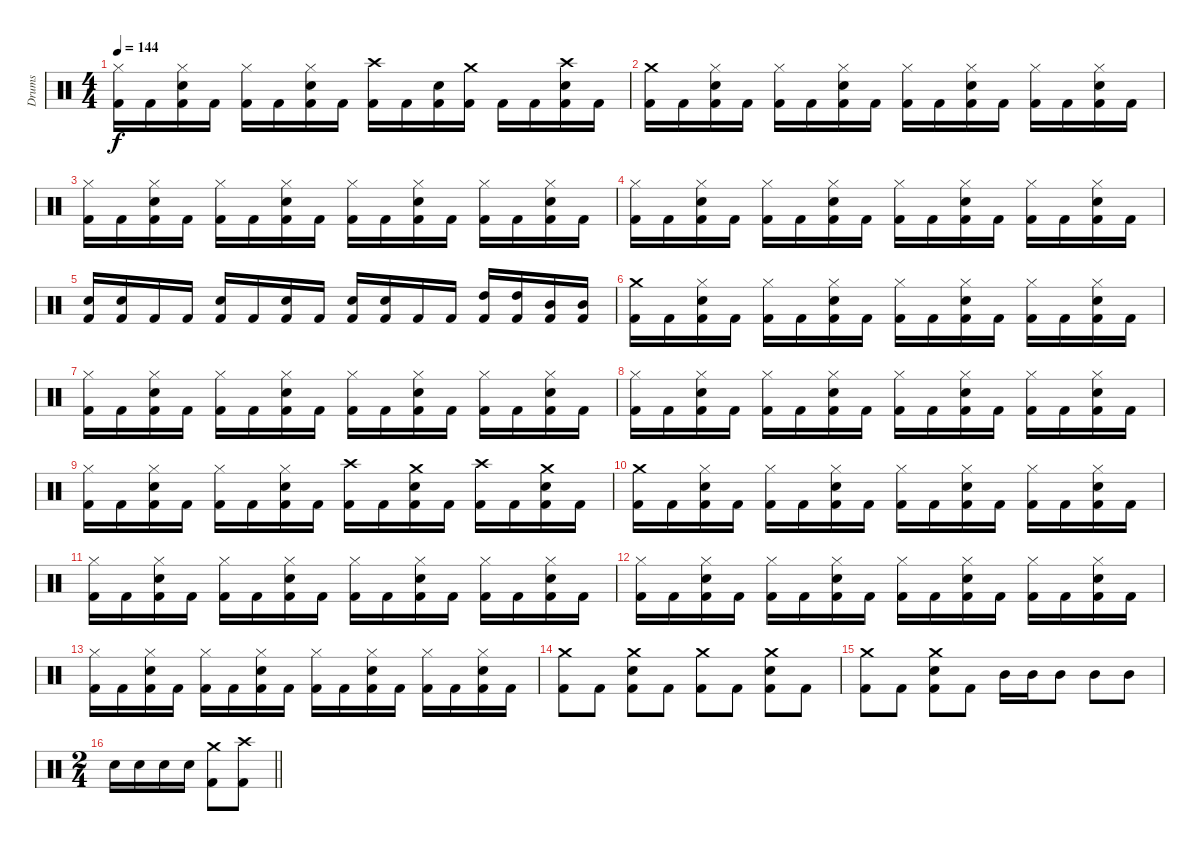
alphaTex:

\track ("Drums" "Drums") {instrument percussion}
\staff {score}
\articulation defaults
\ts (4 4)
\tempo 144
\clef neutral
\ks c
("Kick (hit) 2" "Hi-Hat (closed)").16{dy f} "Kick (hit) 2".16 ("Kick (hit) 2" "Snare (hit) 2" "Hi-Hat (closed)").16 "Kick (hit) 2".16 ("Kick (hit) 2" "Hi-Hat (closed)").16 "Kick (hit) 2".16 ("Kick (hit) 2" "Snare (hit) 2" "Hi-Hat (closed)").16 "Kick (hit) 2".16 ("Kick (hit) 2" "Crash high (hit)").16 "Kick (hit) 2".16 ("Kick (hit) 2" "Snare (hit) 2").16 ("Kick (hit) 2" "Crash medium (hit)").16 "Kick (hit) 2".16 "Kick (hit) 2".16 ("Kick (hit) 2" "Snare (hit) 2" "Crash high (hit)").16 "Kick (hit) 2".16 |
("Kick (hit) 2" "Crash medium (hit)").16 "Kick (hit) 2".16 ("Kick (hit) 2" "Snare (hit) 2" "Hi-Hat (closed)").16 "Kick (hit) 2".16 ("Kick (hit) 2" "Hi-Hat (closed)").16 "Kick (hit) 2".16 ("Kick (hit) 2" "Snare (hit) 2" "Hi-Hat (closed)").16 "Kick (hit) 2".16 ("Kick (hit) 2" "Hi-Hat (closed)").16 "Kick (hit) 2".16 ("Kick (hit) 2" "Snare (hit) 2" "Hi-Hat (closed)").16 "Kick (hit) 2".16 ("Kick (hit) 2" "Hi-Hat (closed)").16 "Kick (hit) 2".16 ("Kick (hit) 2" "Snare (hit) 2" "Hi-Hat (closed)").16 "Kick (hit) 2".16 |
("Kick (hit) 2" "Hi-Hat (closed)").16 "Kick (hit) 2".16 ("Kick (hit) 2" "Snare (hit) 2" "Hi-Hat (closed)").16 "Kick (hit) 2".16 ("Kick (hit) 2" "Hi-Hat (closed)").16 "Kick (hit) 2".16 ("Kick (hit) 2" "Snare (hit) 2" "Hi-Hat (closed)").16 "Kick (hit) 2".16 ("Kick (hit) 2" "Hi-Hat (closed)").16 "Kick (hit) 2".16 ("Kick (hit) 2" "Snare (hit) 2" "Hi-Hat (closed)").16 "Kick (hit) 2".16 ("Kick (hit) 2" "Hi-Hat (closed)").16 "Kick (hit) 2".16 ("Kick (hit) 2" "Snare (hit) 2" "Hi-Hat (closed)").16 "Kick (hit) 2".16 |
("Kick (hit) 2" "Hi-Hat (closed)").16 "Kick (hit) 2".16 ("Kick (hit) 2" "Snare (hit) 2" "Hi-Hat (closed)").16 "Kick (hit) 2".16 ("Kick (hit) 2" "Hi-Hat (closed)").16 "Kick (hit) 2".16 ("Kick (hit) 2" "Snare (hit) 2" "Hi-Hat (closed)").16 "Kick (hit) 2".16 ("Kick (hit) 2" "Hi-Hat (closed)").16 "Kick (hit) 2".16 ("Kick (hit) 2" "Snare (hit) 2" "Hi-Hat (closed)").16 "Kick (hit) 2".16 ("Kick (hit) 2" "Hi-Hat (closed)").16 "Kick (hit) 2".16 ("Kick (hit) 2" "Snare (hit) 2" "Hi-Hat (closed)").16 "Kick (hit) 2".16 |
("Kick (hit) 2" "Snare (hit) 2").16 ("Kick (hit) 2" "Snare (hit) 2").16 "Kick (hit) 2".16 "Kick (hit) 2".16 ("Kick (hit) 2" "Snare (hit) 2").16 "Kick (hit) 2".16 ("Kick (hit) 2" "Snare (hit) 2").16 "Kick (hit) 2".16 ("Kick (hit) 2" "Snare (hit) 2").16 ("Kick (hit) 2" "Snare (hit) 2").16 "Kick (hit) 2".16 "Kick (hit) 2".16 ("Kick (hit) 2" "High Tom (hit)").16 ("Kick (hit) 2" "High Tom (hit)").16 ("Kick (hit) 2" "Mid Tom (hit)").16 ("Kick (hit) 2" "Mid Tom (hit)").16 |
("Kick (hit) 2" "Crash medium (hit)").16 "Kick (hit) 2".16 ("Kick (hit) 2" "Snare (hit) 2" "Hi-Hat (closed)").16 "Kick (hit) 2".16 ("Kick (hit) 2" "Hi-Hat (closed)").16 "Kick (hit) 2".16 ("Kick (hit) 2" "Snare (hit) 2" "Hi-Hat (closed)").16 "Kick (hit) 2".16 ("Kick (hit) 2" "Hi-Hat (closed)").16 "Kick (hit) 2".16 ("Kick (hit) 2" "Snare (hit) 2" "Hi-Hat (closed)").16 "Kick (hit) 2".16 ("Kick (hit) 2" "Hi-Hat (closed)").16 "Kick (hit) 2".16 ("Kick (hit) 2" "Snare (hit) 2" "Hi-Hat (closed)").16 "Kick (hit) 2".16 |
("Kick (hit) 2" "Hi-Hat (closed)").16 "Kick (hit) 2".16 ("Kick (hit) 2" "Snare (hit) 2" "Hi-Hat (closed)").16 "Kick (hit) 2".16 ("Kick (hit) 2" "Hi-Hat (closed)").16 "Kick (hit) 2".16 ("Kick (hit) 2" "Snare (hit) 2" "Hi-Hat (closed)").16 "Kick (hit) 2".16 ("Kick (hit) 2" "Hi-Hat (closed)").16 "Kick (hit) 2".16 ("Kick (hit) 2" "Snare (hit) 2" "Hi-Hat (closed)").16 "Kick (hit) 2".16 ("Kick (hit) 2" "Hi-Hat (closed)").16 "Kick (hit) 2".16 ("Kick (hit) 2" "Snare (hit) 2" "Hi-Hat (closed)").16 "Kick (hit) 2".16 |
("Kick (hit) 2" "Hi-Hat (closed)").16 "Kick (hit) 2".16 ("Kick (hit) 2" "Snare (hit) 2" "Hi-Hat (closed)").16 "Kick (hit) 2".16 ("Kick (hit) 2" "Hi-Hat (closed)").16 "Kick (hit) 2".16 ("Kick (hit) 2" "Snare (hit) 2" "Hi-Hat (closed)").16 "Kick (hit) 2".16 ("Kick (hit) 2" "Hi-Hat (closed)").16 "Kick (hit) 2".16 ("Kick (hit) 2" "Snare (hit) 2" "Hi-Hat (closed)").16 "Kick (hit) 2".16 ("Kick (hit) 2" "Hi-Hat (closed)").16 "Kick (hit) 2".16 ("Kick (hit) 2" "Snare (hit) 2" "Hi-Hat (closed)").16 "Kick (hit) 2".16 |
("Kick (hit) 2" "Hi-Hat (closed)").16 "Kick (hit) 2".16 ("Kick (hit) 2" "Snare (hit) 2" "Hi-Hat (closed)").16 "Kick (hit) 2".16 ("Kick (hit) 2" "Hi-Hat (closed)").16 "Kick (hit) 2".16 ("Kick (hit) 2" "Snare (hit) 2" "Hi-Hat (closed)").16 "Kick (hit) 2".16 ("Kick (hit) 2" "Crash high (hit)").16 "Kick (hit) 2".16 ("Kick (hit) 2" "Snare (hit) 2" "Crash medium (hit)").16 "Kick (hit) 2".16 ("Kick (hit) 2" "Crash high (hit)").16 "Kick (hit) 2".16 ("Kick (hit) 2" "Snare (hit) 2" "Crash medium (hit)").16 "Kick (hit) 2".16 |
("Kick (hit) 2" "Crash medium (hit)").16 "Kick (hit) 2".16 ("Kick (hit) 2" "Snare (hit) 2" "Hi-Hat (closed)").16 "Kick (hit) 2".16 ("Kick (hit) 2" "Hi-Hat (closed)").16 "Kick (hit) 2".16 ("Kick (hit) 2" "Snare (hit) 2" "Hi-Hat (closed)").16 "Kick (hit) 2".16 ("Kick (hit) 2" "Hi-Hat (closed)").16 "Kick (hit) 2".16 ("Kick (hit) 2" "Snare (hit) 2" "Hi-Hat (closed)").16 "Kick (hit) 2".16 ("Kick (hit) 2" "Hi-Hat (closed)").16 "Kick (hit) 2".16 ("Kick (hit) 2" "Snare (hit) 2" "Hi-Hat (closed)").16 "Kick (hit) 2".16 |
("Kick (hit) 2" "Hi-Hat (closed)").16 "Kick (hit) 2".16 ("Kick (hit) 2" "Snare (hit) 2" "Hi-Hat (closed)").16 "Kick (hit) 2".16 ("Kick (hit) 2" "Hi-Hat (closed)").16 "Kick (hit) 2".16 ("Kick (hit) 2" "Snare (hit) 2" "Hi-Hat (closed)").16 "Kick (hit) 2".16 ("Kick (hit) 2" "Hi-Hat (closed)").16 "Kick (hit) 2".16 ("Kick (hit) 2" "Snare (hit) 2" "Hi-Hat (closed)").16 "Kick (hit) 2".16 ("Kick (hit) 2" "Hi-Hat (closed)").16 "Kick (hit) 2".16 ("Kick (hit) 2" "Snare (hit) 2" "Hi-Hat (closed)").16 "Kick (hit) 2".16 |
("Kick (hit) 2" "Hi-Hat (closed)").16 "Kick (hit) 2".16 ("Kick (hit) 2" "Snare (hit) 2" "Hi-Hat (closed)").16 "Kick (hit) 2".16 ("Kick (hit) 2" "Hi-Hat (closed)").16 "Kick (hit) 2".16 ("Kick (hit) 2" "Snare (hit) 2" "Hi-Hat (closed)").16 "Kick (hit) 2".16 ("Kick (hit) 2" "Hi-Hat (closed)").16 "Kick (hit) 2".16 ("Kick (hit) 2" "Snare (hit) 2" "Hi-Hat (closed)").16 "Kick (hit) 2".16 ("Kick (hit) 2" "Hi-Hat (closed)").16 "Kick (hit) 2".16 ("Kick (hit) 2" "Snare (hit) 2" "Hi-Hat (closed)").16 "Kick (hit) 2".16 |
("Kick (hit) 2" "Hi-Hat (closed)").16 "Kick (hit) 2".16 ("Kick (hit) 2" "Snare (hit) 2" "Hi-Hat (closed)").16 "Kick (hit) 2".16 ("Kick (hit) 2" "Hi-Hat (closed)").16 "Kick (hit) 2".16 ("Kick (hit) 2" "Snare (hit) 2" "Hi-Hat (closed)").16 "Kick (hit) 2".16 ("Kick (hit) 2" "Hi-Hat (closed)").16 "Kick (hit) 2".16 ("Kick (hit) 2" "Snare (hit) 2" "Hi-Hat (closed)").16 "Kick (hit) 2".16 ("Kick (hit) 2" "Hi-Hat (closed)").16 "Kick (hit) 2".16 ("Kick (hit) 2" "Snare (hit) 2" "Hi-Hat (closed)").16 "Kick (hit) 2".16 |
("Kick (hit) 2" "Crash medium (hit)").8 "Kick (hit) 2".8 ("Kick (hit) 2" "Snare (hit) 2" "Crash medium (hit)").8 "Kick (hit) 2".8 ("Kick (hit) 2" "Crash medium (hit)").8 "Kick (hit) 2".8 ("Kick (hit) 2" "Snare (hit) 2" "Crash medium (hit)").8 "Kick (hit) 2".8 |
("Kick (hit) 2" "Crash medium (hit)").8 "Kick (hit) 2".8 ("Kick (hit) 2" "Snare (hit) 2" "Crash medium (hit)").8 "Kick (hit) 2".8 "Mid Tom (hit)".16 "Mid Tom (hit)".16 "Mid Tom (hit)".8 "Mid Tom (hit)".8 "Mid Tom (hit)".8 |
\ts (2 4)
\barLineRight lightlight "Snare (hit) 2".16 "Snare (hit) 2".16 "Snare (hit) 2".16 "Snare (hit) 2".16
("Kick (hit) 2" "Crash medium (hit)").8 ("Kick (hit) 2" "Crash high (hit)").8
